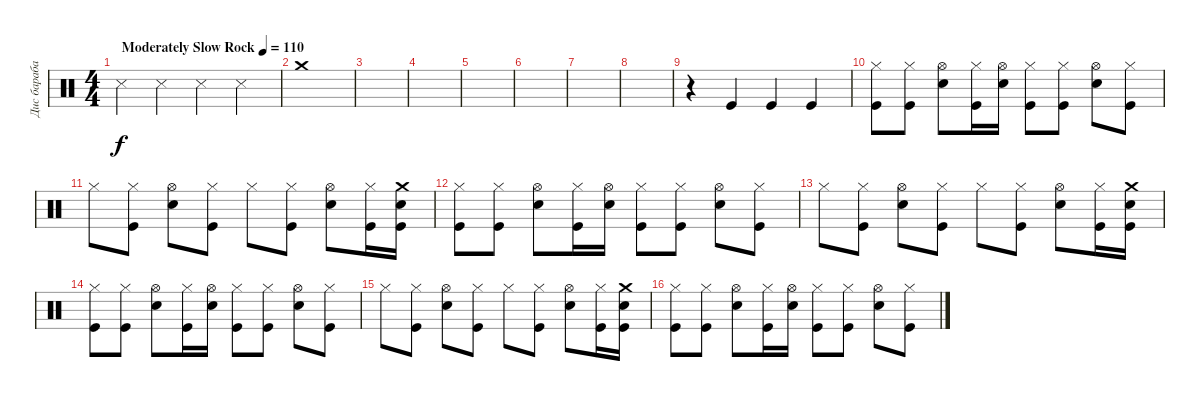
\track ("Дис барабаны" "Дис бараба") {instrument percussion}
\staff {score}
\articulation defaults
\ts (4 4)
\tempo (110 "Moderately Slow Rock")
\clef neutral
\ks c "Snare (side stick) 3".4{dy f} "Snare (side stick) 3".4 "Snare (side stick) 3".4 "Snare (side stick) 3".4
|
"Crash medium (hit)".1 |
|
|
|
|
|
|
r.4 "Kick (hit)".4 "Kick (hit)".4 "Kick (hit)".4 |
("Hi-Hat (closed)" "Kick (hit)").8 ("Hi-Hat (closed)" "Kick (hit)").8 ("Hi-Hat (open)" "Electric Snare (hit)").8 ("Hi-Hat (closed)" "Kick (hit)").16 ("Hi-Hat (open)" "Electric Snare (hit)").16 ("Hi-Hat (closed)" "Kick (hit)").8 ("Hi-Hat (closed)" "Kick (hit)").8 ("Hi-Hat (open)" "Electric Snare (hit)").8 ("Hi-Hat (closed)" "Kick (hit)").8 |
"Hi-Hat (closed)".8 ("Hi-Hat (closed)" "Kick (hit)").8 ("Hi-Hat (open)" "Electric Snare (hit)").8 ("Hi-Hat (closed)" "Kick (hit)").8 "Hi-Hat (closed)".8 ("Hi-Hat (closed)" "Kick (hit)").8 ("Hi-Hat (open)" "Electric Snare (hit)").8 ("Hi-Hat (closed)" "Kick (hit)").16 ("Crash medium (hit)" "Electric Snare (hit)" "Kick (hit)").16 |
("Hi-Hat (closed)" "Kick (hit)").8 ("Hi-Hat (closed)" "Kick (hit)").8 ("Hi-Hat (open)" "Electric Snare (hit)").8 ("Hi-Hat (closed)" "Kick (hit)").16 ("Hi-Hat (open)" "Electric Snare (hit)").16 ("Hi-Hat (closed)" "Kick (hit)").8 ("Hi-Hat (closed)" "Kick (hit)").8 ("Hi-Hat (open)" "Electric Snare (hit)").8 ("Hi-Hat (closed)" "Kick (hit)").8 |
"Hi-Hat (closed)".8 ("Hi-Hat (closed)" "Kick (hit)").8 ("Hi-Hat (open)" "Electric Snare (hit)").8 ("Hi-Hat (closed)" "Kick (hit)").8 "Hi-Hat (closed)".8 ("Hi-Hat (closed)" "Kick (hit)").8 ("Hi-Hat (open)" "Electric Snare (hit)").8 ("Hi-Hat (closed)" "Kick (hit)").16 ("Crash medium (hit)" "Electric Snare (hit)" "Kick (hit)").16 |
("Hi-Hat (closed)" "Kick (hit)").8 ("Hi-Hat (closed)" "Kick (hit)").8 ("Hi-Hat (open)" "Electric Snare (hit)").8 ("Hi-Hat (closed)" "Kick (hit)").16 ("Hi-Hat (open)" "Electric Snare (hit)").16 ("Hi-Hat (closed)" "Kick (hit)").8 ("Hi-Hat (closed)" "Kick (hit)").8 ("Hi-Hat (open)" "Electric Snare (hit)").8 ("Hi-Hat (closed)" "Kick (hit)").8 |
"Hi-Hat (closed)".8 ("Hi-Hat (closed)" "Kick (hit)").8 ("Hi-Hat (open)" "Electric Snare (hit)").8 ("Hi-Hat (closed)" "Kick (hit)").8 "Hi-Hat (closed)".8 ("Hi-Hat (closed)" "Kick (hit)").8 ("Hi-Hat (open)" "Electric Snare (hit)").8 ("Hi-Hat (closed)" "Kick (hit)").16 ("Crash medium (hit)" "Electric Snare (hit)" "Kick (hit)").16 |
("Hi-Hat (closed)" "Kick (hit)").8 ("Hi-Hat (closed)" "Kick (hit)").8 ("Hi-Hat (open)" "Electric Snare (hit)").8 ("Hi-Hat (closed)" "Kick (hit)").16 ("Hi-Hat (open)" "Electric Snare (hit)").16 ("Hi-Hat (closed)" "Kick (hit)").8 ("Hi-Hat (closed)" "Kick (hit)").8 ("Hi-Hat (open)" "Electric Snare (hit)").8 ("Hi-Hat (closed)" "Kick (hit)").8
